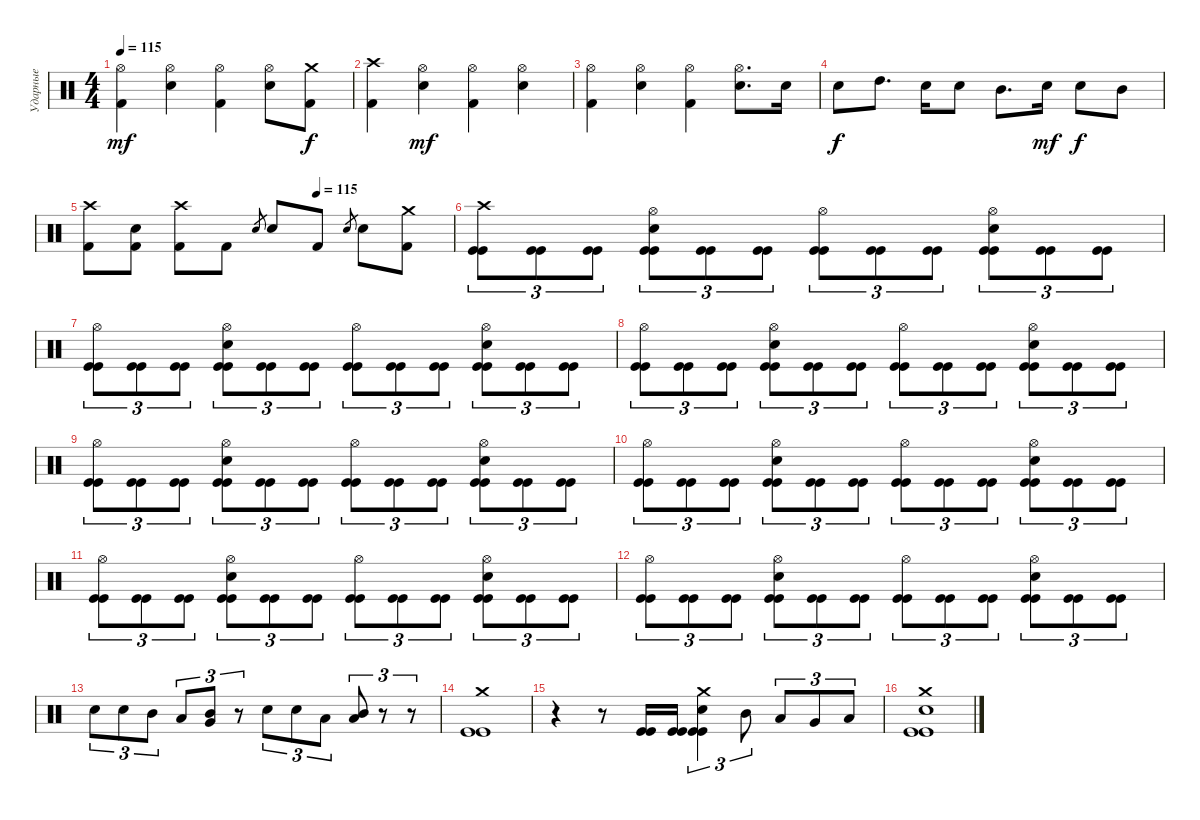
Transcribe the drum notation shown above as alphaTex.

\track ("Ударные" "Ударные") {instrument percussion}
\staff {score}
\articulation defaults
\ts (4 4)
\tempo 115
\clef neutral
\ks c
("Hi-Hat (open)" "Kick (hit) 2").4{dy mf} ("Hi-Hat (open)" "Electric Snare (hit)").4 ("Hi-Hat (open)" "Kick (hit) 2").4 ("Hi-Hat (open)" "Electric Snare (hit)").8 ("Crash medium (hit)" "Kick (hit) 2").8{dy f} |
("Crash high (hit)" "Kick (hit) 2").4 ("Hi-Hat (open)" "Electric Snare (hit)").4{dy mf} ("Hi-Hat (open)" "Kick (hit) 2").4 ("Hi-Hat (open)" "Electric Snare (hit)").4 |
("Hi-Hat (open)" "Kick (hit) 2").4 ("Hi-Hat (open)" "Electric Snare (hit)").4 ("Hi-Hat (open)" "Kick (hit) 2").4 ("Hi-Hat (open)" "Electric Snare (hit)").8{d} "Electric Snare (hit)".16 |
"Electric Snare (hit)".8{dy f} "High Tom (hit)".8{d} "Electric Snare (hit)".16 "Electric Snare (hit)".8 "Mid Tom (hit)".8{d} "Electric Snare (hit)".16{dy mf} "Electric Snare (hit)".8{dy f} "Mid Tom (hit)".8 |
\tempo (115 0.625)
("Crash high (hit)" "Kick (hit) 2").8 ("Kick (hit) 2" "Electric Snare (hit)").8 ("Kick (hit) 2" "Crash high (hit)").8 "Kick (hit) 2".8 "Electric Snare (hit)".8{gr} "Electric Snare (hit)".8 "Kick (hit) 2".8 "Electric Snare (hit)".8{gr} "Electric Snare (hit)".8 ("Crash medium (hit)" "Kick (hit) 2").8 |
("Kick (hit)" "Kick (hit)" "Crash high (hit)").8{tu (3 2)} ("Kick (hit)" "Kick (hit)").8{tu (3 2)} ("Kick (hit)" "Kick (hit)").8{tu (3 2)} ("Kick (hit)" "Kick (hit)" "Snare (hit) 2" "Hi-Hat (open)").8{tu (3 2)} ("Kick (hit)" "Kick (hit)").8{tu (3 2)} ("Kick (hit)" "Kick (hit)").8{tu (3 2)} ("Kick (hit)" "Kick (hit)" "Hi-Hat (open)").8{tu (3 2)} ("Kick (hit)" "Kick (hit)").8{tu (3 2)} ("Kick (hit)" "Kick (hit)").8{tu (3 2)} ("Kick (hit)" "Kick (hit)" "Snare (hit) 2" "Hi-Hat (open)").8{tu (3 2)} ("Kick (hit)" "Kick (hit)").8{tu (3 2)} ("Kick (hit)" "Kick (hit)").8{tu (3 2)} |
("Kick (hit)" "Kick (hit)" "Hi-Hat (open)").8{tu (3 2)} ("Kick (hit)" "Kick (hit)").8{tu (3 2)} ("Kick (hit)" "Kick (hit)").8{tu (3 2)} ("Kick (hit)" "Kick (hit)" "Snare (hit) 2" "Hi-Hat (open)").8{tu (3 2)} ("Kick (hit)" "Kick (hit)").8{tu (3 2)} ("Kick (hit)" "Kick (hit)").8{tu (3 2)} ("Kick (hit)" "Kick (hit)" "Hi-Hat (open)").8{tu (3 2)} ("Kick (hit)" "Kick (hit)").8{tu (3 2)} ("Kick (hit)" "Kick (hit)").8{tu (3 2)} ("Kick (hit)" "Kick (hit)" "Snare (hit) 2" "Hi-Hat (open)").8{tu (3 2)} ("Kick (hit)" "Kick (hit)").8{tu (3 2)} ("Kick (hit)" "Kick (hit)").8{tu (3 2)} |
("Kick (hit)" "Kick (hit)" "Hi-Hat (open)").8{tu (3 2)} ("Kick (hit)" "Kick (hit)").8{tu (3 2)} ("Kick (hit)" "Kick (hit)").8{tu (3 2)} ("Kick (hit)" "Kick (hit)" "Snare (hit) 2" "Hi-Hat (open)").8{tu (3 2)} ("Kick (hit)" "Kick (hit)").8{tu (3 2)} ("Kick (hit)" "Kick (hit)").8{tu (3 2)} ("Kick (hit)" "Kick (hit)" "Hi-Hat (open)").8{tu (3 2)} ("Kick (hit)" "Kick (hit)").8{tu (3 2)} ("Kick (hit)" "Kick (hit)").8{tu (3 2)} ("Kick (hit)" "Kick (hit)" "Snare (hit) 2" "Hi-Hat (open)").8{tu (3 2)} ("Kick (hit)" "Kick (hit)").8{tu (3 2)} ("Kick (hit)" "Kick (hit)").8{tu (3 2)} |
("Kick (hit)" "Kick (hit)" "Hi-Hat (open)").8{tu (3 2)} ("Kick (hit)" "Kick (hit)").8{tu (3 2)} ("Kick (hit)" "Kick (hit)").8{tu (3 2)} ("Kick (hit)" "Kick (hit)" "Snare (hit) 2" "Hi-Hat (open)").8{tu (3 2)} ("Kick (hit)" "Kick (hit)").8{tu (3 2)} ("Kick (hit)" "Kick (hit)").8{tu (3 2)} ("Kick (hit)" "Kick (hit)" "Hi-Hat (open)").8{tu (3 2)} ("Kick (hit)" "Kick (hit)").8{tu (3 2)} ("Kick (hit)" "Kick (hit)").8{tu (3 2)} ("Kick (hit)" "Kick (hit)" "Snare (hit) 2" "Hi-Hat (open)").8{tu (3 2)} ("Kick (hit)" "Kick (hit)").8{tu (3 2)} ("Kick (hit)" "Kick (hit)").8{tu (3 2)} |
("Kick (hit)" "Kick (hit)" "Hi-Hat (open)").8{tu (3 2)} ("Kick (hit)" "Kick (hit)").8{tu (3 2)} ("Kick (hit)" "Kick (hit)").8{tu (3 2)} ("Kick (hit)" "Kick (hit)" "Snare (hit) 2" "Hi-Hat (open)").8{tu (3 2)} ("Kick (hit)" "Kick (hit)").8{tu (3 2)} ("Kick (hit)" "Kick (hit)").8{tu (3 2)} ("Kick (hit)" "Kick (hit)" "Hi-Hat (open)").8{tu (3 2)} ("Kick (hit)" "Kick (hit)").8{tu (3 2)} ("Kick (hit)" "Kick (hit)").8{tu (3 2)} ("Kick (hit)" "Kick (hit)" "Snare (hit) 2" "Hi-Hat (open)").8{tu (3 2)} ("Kick (hit)" "Kick (hit)").8{tu (3 2)} ("Kick (hit)" "Kick (hit)").8{tu (3 2)} |
("Kick (hit)" "Kick (hit)" "Hi-Hat (open)").8{tu (3 2)} ("Kick (hit)" "Kick (hit)").8{tu (3 2)} ("Kick (hit)" "Kick (hit)").8{tu (3 2)} ("Kick (hit)" "Kick (hit)" "Snare (hit) 2" "Hi-Hat (open)").8{tu (3 2)} ("Kick (hit)" "Kick (hit)").8{tu (3 2)} ("Kick (hit)" "Kick (hit)").8{tu (3 2)} ("Kick (hit)" "Kick (hit)" "Hi-Hat (open)").8{tu (3 2)} ("Kick (hit)" "Kick (hit)").8{tu (3 2)} ("Kick (hit)" "Kick (hit)").8{tu (3 2)} ("Kick (hit)" "Kick (hit)" "Snare (hit) 2" "Hi-Hat (open)").8{tu (3 2)} ("Kick (hit)" "Kick (hit)").8{tu (3 2)} ("Kick (hit)" "Kick (hit)").8{tu (3 2)} |
("Kick (hit)" "Kick (hit)" "Hi-Hat (open)").8{tu (3 2)} ("Kick (hit)" "Kick (hit)").8{tu (3 2)} ("Kick (hit)" "Kick (hit)").8{tu (3 2)} ("Kick (hit)" "Kick (hit)" "Snare (hit) 2" "Hi-Hat (open)").8{tu (3 2)} ("Kick (hit)" "Kick (hit)").8{tu (3 2)} ("Kick (hit)" "Kick (hit)").8{tu (3 2)} ("Kick (hit)" "Kick (hit)" "Hi-Hat (open)").8{tu (3 2)} ("Kick (hit)" "Kick (hit)").8{tu (3 2)} ("Kick (hit)" "Kick (hit)").8{tu (3 2)} ("Kick (hit)" "Kick (hit)" "Snare (hit) 2" "Hi-Hat (open)").8{tu (3 2)} ("Kick (hit)" "Kick (hit)").8{tu (3 2)} ("Kick (hit)" "Kick (hit)").8{tu (3 2)} |
"Snare (hit) 2".8{tu (3 2)} "Snare (hit) 2".8{tu (3 2)} "Mid Tom (hit)".8{tu (3 2)} "Low Tom (hit)".8{tu (3 2)} ("Very Low Tom (hit)" "Mid Tom (hit)").8{tu (3 2)} r.8{tu (3 2)} "Snare (hit) 2".8{tu (3 2)} "Snare (hit) 2".8{tu (3 2)} "Low Tom (hit)".8{tu (3 2)} ("Low Floor Tom (hit)" "Mid Tom (hit)").8{tu (3 2)} r.8{tu (3 2)} r.8{tu (3 2)} |
("Crash medium (hit)" "Kick (hit)" "Kick (hit)").1 |
r.4 r.8 ("Kick (hit)" "Kick (hit)").16 ("Kick (hit)" "Kick (hit)").16 ("Kick (hit)" "Kick (hit)" "Snare (hit) 2" "Crash medium (hit)").4{tu (3 2)} "Mid Tom (hit)".8{tu (3 2)} "Low Tom (hit)".8{tu (3 2)} "Very Low Tom (hit)".8{tu (3 2)} "Low Floor Tom (hit)".8{tu (3 2)} |
("Kick (hit)" "Kick (hit)" "Snare (hit) 2" "Crash medium (hit)").1
